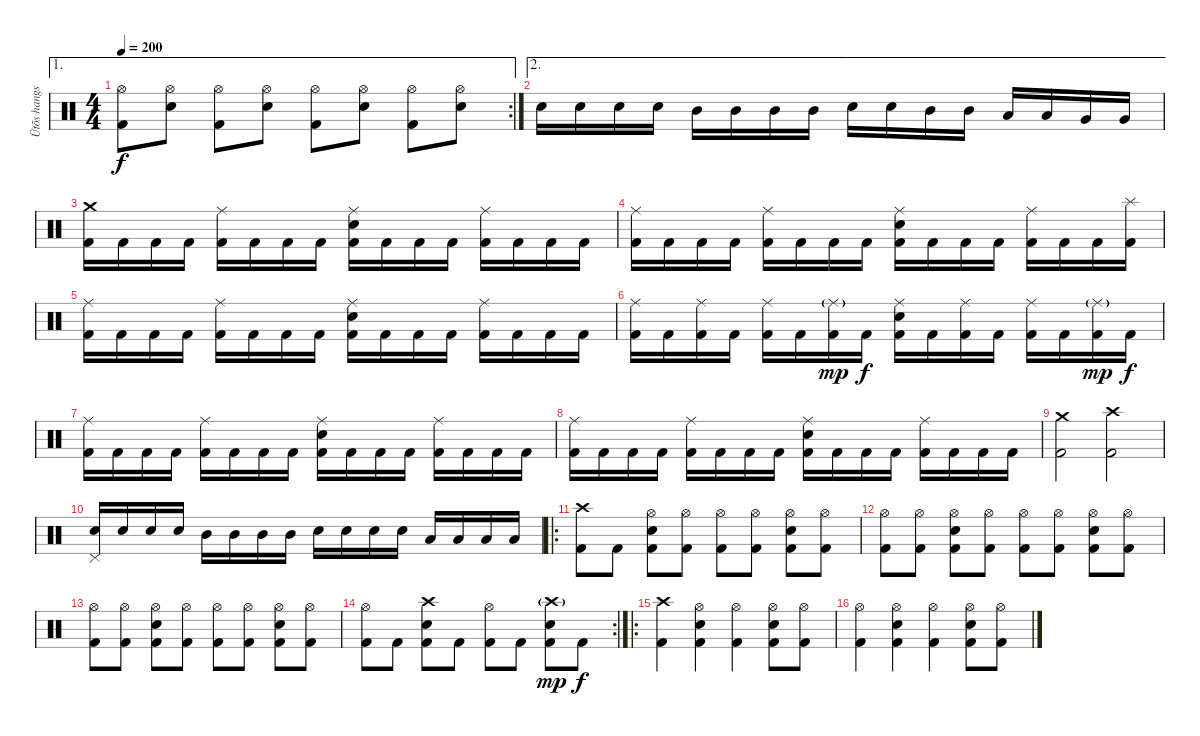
\track ("Ütõs hangszer" "Ütõs hangs") {instrument percussion}
\staff {score}
\articulation defaults
\ae 1
\rc 2
\ts (4 4)
\tempo 200
\clef neutral
\ks c
("Hi-Hat (open)" "Kick (hit) 2").8{dy f} ("Hi-Hat (open)" "Snare (hit) 2").8 ("Hi-Hat (open)" "Kick (hit) 2").8 ("Hi-Hat (open)" "Snare (hit) 2").8 ("Hi-Hat (open)" "Kick (hit) 2").8 ("Hi-Hat (open)" "Snare (hit) 2").8 ("Hi-Hat (open)" "Kick (hit) 2").8 ("Hi-Hat (open)" "Snare (hit) 2").8 |
\ae 2 "Snare (hit) 2".16 "Snare (hit) 2".16 "Snare (hit) 2".16 "Snare (hit) 2".16 "Mid Tom (hit)".16 "Mid Tom (hit)".16 "Mid Tom (hit)".16 "Mid Tom (hit)".16 "Snare (hit) 2".16 "Snare (hit) 2".16 "Mid Tom (hit)".16 "Mid Tom (hit)".16 "Low Tom (hit)".16 "Low Tom (hit)".16 "Very Low Tom (hit)".16 "Very Low Tom (hit)".16
|
("Crash medium (hit)" "Kick (hit) 2").16 "Kick (hit) 2".16 "Kick (hit) 2".16 "Kick (hit) 2".16 ("Ride (middle)" "Kick (hit) 2").16 "Kick (hit) 2".16 "Kick (hit) 2".16 "Kick (hit) 2".16 ("Ride (middle)" "Snare (hit) 2" "Kick (hit) 2").16 "Kick (hit) 2".16 "Kick (hit) 2".16 "Kick (hit) 2".16 ("Ride (middle)" "Kick (hit) 2").16 "Kick (hit) 2".16 "Kick (hit) 2".16 "Kick (hit) 2".16 |
("Ride (middle)" "Kick (hit) 2").16 "Kick (hit) 2".16 "Kick (hit) 2".16 "Kick (hit) 2".16 ("Ride (middle)" "Kick (hit) 2").16 "Kick (hit) 2".16 "Kick (hit) 2".16 "Kick (hit) 2".16 ("Ride (middle)" "Snare (hit) 2" "Kick (hit) 2").16 "Kick (hit) 2".16 "Kick (hit) 2".16 "Kick (hit) 2".16 ("Ride (middle)" "Kick (hit) 2").16 "Kick (hit) 2".16 "Kick (hit) 2".16 ("Splash (hit)" "Kick (hit) 2").16 |
("Ride (middle)" "Kick (hit) 2").16 "Kick (hit) 2".16 "Kick (hit) 2".16 "Kick (hit) 2".16 ("Ride (middle)" "Kick (hit) 2").16 "Kick (hit) 2".16 "Kick (hit) 2".16 "Kick (hit) 2".16 ("Ride (middle)" "Snare (hit) 2" "Kick (hit) 2").16 "Kick (hit) 2".16 "Kick (hit) 2".16 "Kick (hit) 2".16 ("Ride (middle)" "Kick (hit) 2").16 "Kick (hit) 2".16 "Kick (hit) 2".16 "Kick (hit) 2".16 |
("Ride (middle)" "Kick (hit) 2").16 "Kick (hit) 2".16 ("Ride (middle)" "Kick (hit) 2").16 "Kick (hit) 2".16 ("Ride (middle)" "Kick (hit) 2").16 "Kick (hit) 2".16 ("Ride (middle)"{g} "Kick (hit) 2").16{dy mp} "Kick (hit) 2".16{dy f} ("Ride (middle)" "Snare (hit) 2" "Kick (hit) 2").16 "Kick (hit) 2".16 ("Ride (middle)" "Kick (hit) 2").16 "Kick (hit) 2".16 ("Ride (middle)" "Kick (hit) 2").16 "Kick (hit) 2".16 ("Ride (middle)"{g} "Kick (hit) 2").16{dy mp} "Kick (hit) 2".16{dy f} |
("Ride (middle)" "Kick (hit) 2").16 "Kick (hit) 2".16 "Kick (hit) 2".16 "Kick (hit) 2".16 ("Ride (middle)" "Kick (hit) 2").16 "Kick (hit) 2".16 "Kick (hit) 2".16 "Kick (hit) 2".16 ("Ride (middle)" "Snare (hit) 2" "Kick (hit) 2").16 "Kick (hit) 2".16 "Kick (hit) 2".16 "Kick (hit) 2".16 ("Ride (middle)" "Kick (hit) 2").16 "Kick (hit) 2".16 "Kick (hit) 2".16 "Kick (hit) 2".16 |
("Ride (middle)" "Kick (hit) 2").16 "Kick (hit) 2".16 "Kick (hit) 2".16 "Kick (hit) 2".16 ("Ride (middle)" "Kick (hit) 2").16 "Kick (hit) 2".16 "Kick (hit) 2".16 "Kick (hit) 2".16 ("Ride (middle)" "Snare (hit) 2" "Kick (hit) 2").16 "Kick (hit) 2".16 "Kick (hit) 2".16 "Kick (hit) 2".16 ("Ride (middle)" "Kick (hit) 2").16 "Kick (hit) 2".16 "Kick (hit) 2".16 "Kick (hit) 2".16 |
("Crash medium (hit)" "Kick (hit) 2").2 ("Crash high (hit)" "Kick (hit) 2").2 |
("Pedal Hi-Hat (hit)" "Snare (hit) 2").16 "Snare (hit) 2".16 "Snare (hit) 2".16 "Snare (hit) 2".16 "Mid Tom (hit)".16 "Mid Tom (hit)".16 "Mid Tom (hit)".16 "Mid Tom (hit)".16 "Snare (hit) 2".16 "Snare (hit) 2".16 "Snare (hit) 2".16 "Snare (hit) 2".16 "Low Tom (hit)".16 "Low Tom (hit)".16 "Low Tom (hit)".16 "Low Tom (hit)".16 |
\ro
("Crash high (hit)" "Kick (hit) 2").8 "Kick (hit) 2".8 ("Hi-Hat (open)" "Snare (hit) 2" "Kick (hit) 2").8 ("Hi-Hat (open)" "Kick (hit) 2").8 ("Hi-Hat (open)" "Kick (hit) 2").8 ("Hi-Hat (open)" "Kick (hit) 2").8 ("Hi-Hat (open)" "Snare (hit) 2" "Kick (hit) 2").8 ("Hi-Hat (open)" "Kick (hit) 2").8 |
("Hi-Hat (open)" "Kick (hit) 2").8 ("Hi-Hat (open)" "Kick (hit) 2").8 ("Hi-Hat (open)" "Snare (hit) 2" "Kick (hit) 2").8 ("Hi-Hat (open)" "Kick (hit) 2").8 ("Hi-Hat (open)" "Kick (hit) 2").8 ("Hi-Hat (open)" "Kick (hit) 2").8 ("Hi-Hat (open)" "Snare (hit) 2" "Kick (hit) 2").8 ("Hi-Hat (open)" "Kick (hit) 2").8 |
("Hi-Hat (open)" "Kick (hit) 2").8 ("Hi-Hat (open)" "Kick (hit) 2").8 ("Hi-Hat (open)" "Snare (hit) 2" "Kick (hit) 2").8 ("Hi-Hat (open)" "Kick (hit) 2").8 ("Hi-Hat (open)" "Kick (hit) 2").8 ("Hi-Hat (open)" "Kick (hit) 2").8 ("Hi-Hat (open)" "Snare (hit) 2" "Kick (hit) 2").8 ("Hi-Hat (open)" "Kick (hit) 2").8 |
\rc 2
("Hi-Hat (open)" "Kick (hit) 2").8 "Kick (hit) 2".8 ("Crash high (hit)" "Snare (hit) 2" "Kick (hit) 2").8 "Kick (hit) 2".8 ("Hi-Hat (open)" "Kick (hit) 2").8 "Kick (hit) 2".8 ("Crash high (hit)"{g} "Snare (hit) 2" "Kick (hit) 2").8{dy mp} "Kick (hit) 2".8{dy f} |
\ro
("Crash high (hit)" "Kick (hit) 2").4 ("Hi-Hat (open)" "Snare (hit) 2" "Kick (hit) 2").4 ("Hi-Hat (open)" "Kick (hit) 2").4 ("Hi-Hat (open)" "Snare (hit) 2" "Kick (hit) 2").8 ("Hi-Hat (open)" "Kick (hit) 2").8 |
("Hi-Hat (open)" "Kick (hit) 2").4 ("Hi-Hat (open)" "Snare (hit) 2" "Kick (hit) 2").4 ("Hi-Hat (open)" "Kick (hit) 2").4 ("Hi-Hat (open)" "Snare (hit) 2" "Kick (hit) 2").8 ("Hi-Hat (open)" "Kick (hit) 2").8
